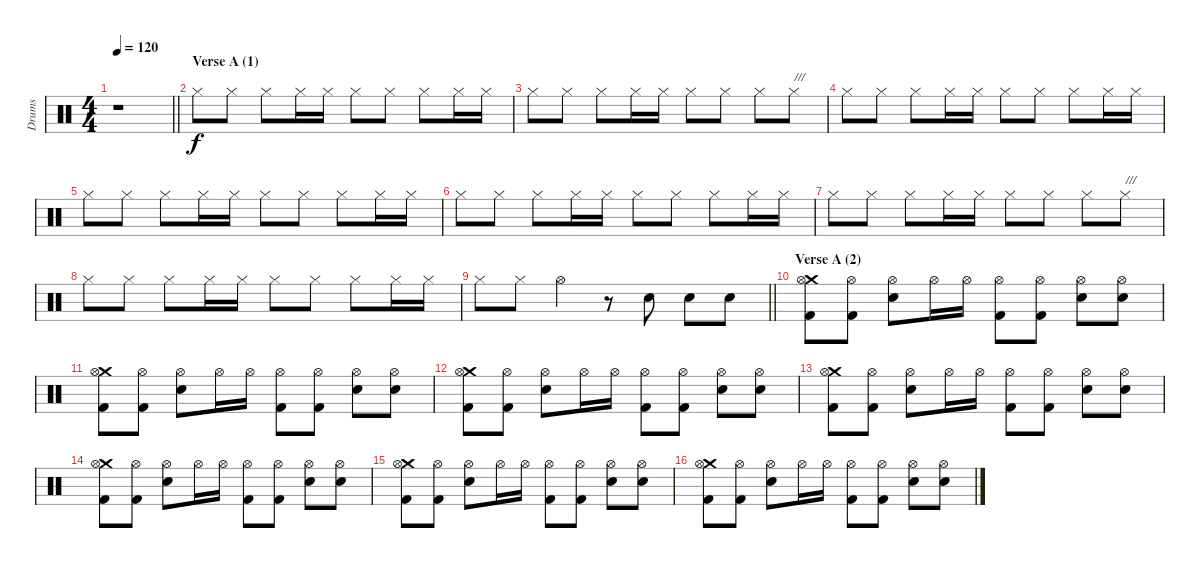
\track ("Drums" "Drums") {instrument percussion}
\staff {score}
\articulation defaults
\ts (4 4)
\tempo 120
\clef neutral
\barLineRight lightlight
\ks c
r.1{dy f} |
\section ("" "Verse A (1)")
"Hi-Hat (closed)".8 "Hi-Hat (closed)".8 "Hi-Hat (closed)".8 "Hi-Hat (closed)".16 "Hi-Hat (closed)".16 "Hi-Hat (closed)".8 "Hi-Hat (closed)".8 "Hi-Hat (closed)".8 "Hi-Hat (closed)".16 "Hi-Hat (closed)".16 |
"Hi-Hat (closed)".8 "Hi-Hat (closed)".8 "Hi-Hat (closed)".8 "Hi-Hat (closed)".16 "Hi-Hat (closed)".16 "Hi-Hat (closed)".8 "Hi-Hat (closed)".8 "Hi-Hat (closed)".8 "Hi-Hat (closed)".8{txt "///"} |
"Hi-Hat (closed)".8 "Hi-Hat (closed)".8 "Hi-Hat (closed)".8 "Hi-Hat (closed)".16 "Hi-Hat (closed)".16 "Hi-Hat (closed)".8 "Hi-Hat (closed)".8 "Hi-Hat (closed)".8 "Hi-Hat (closed)".16 "Hi-Hat (closed)".16 |
"Hi-Hat (closed)".8 "Hi-Hat (closed)".8 "Hi-Hat (closed)".8 "Hi-Hat (closed)".16 "Hi-Hat (closed)".16 "Hi-Hat (closed)".8 "Hi-Hat (closed)".8 "Hi-Hat (closed)".8 "Hi-Hat (closed)".16 "Hi-Hat (closed)".16 |
"Hi-Hat (closed)".8 "Hi-Hat (closed)".8 "Hi-Hat (closed)".8 "Hi-Hat (closed)".16 "Hi-Hat (closed)".16 "Hi-Hat (closed)".8 "Hi-Hat (closed)".8 "Hi-Hat (closed)".8 "Hi-Hat (closed)".16 "Hi-Hat (closed)".16 |
"Hi-Hat (closed)".8 "Hi-Hat (closed)".8 "Hi-Hat (closed)".8 "Hi-Hat (closed)".16 "Hi-Hat (closed)".16 "Hi-Hat (closed)".8 "Hi-Hat (closed)".8 "Hi-Hat (closed)".8 "Hi-Hat (closed)".8{txt "///"} |
"Hi-Hat (closed)".8 "Hi-Hat (closed)".8 "Hi-Hat (closed)".8 "Hi-Hat (closed)".16 "Hi-Hat (closed)".16 "Hi-Hat (closed)".8 "Hi-Hat (closed)".8 "Hi-Hat (closed)".8 "Hi-Hat (closed)".16 "Hi-Hat (closed)".16 |
\barLineRight lightlight "Hi-Hat (closed)".8 "Hi-Hat (closed)".8 "Hi-Hat (open)".4
r.8 "Electric Snare (hit)".8 "Electric Snare (hit)".8 "Electric Snare (hit)".8 |
\section ("" "Verse A (2)")
("Crash medium (hit)" "Hi-Hat (open)" "Kick (hit) 2").8 ("Hi-Hat (open)" "Kick (hit) 2").8 ("Hi-Hat (open)" "Electric Snare (hit)").8 "Hi-Hat (open)".16 "Hi-Hat (open)".16 ("Hi-Hat (open)" "Kick (hit) 2").8 ("Hi-Hat (open)" "Kick (hit) 2").8 ("Hi-Hat (open)" "Electric Snare (hit)").8 ("Hi-Hat (open)" "Electric Snare (hit)").8 |
("Crash medium (hit)" "Hi-Hat (open)" "Kick (hit) 2").8 ("Hi-Hat (open)" "Kick (hit) 2").8 ("Hi-Hat (open)" "Electric Snare (hit)").8 "Hi-Hat (open)".16 "Hi-Hat (open)".16 ("Hi-Hat (open)" "Kick (hit) 2").8 ("Hi-Hat (open)" "Kick (hit) 2").8 ("Hi-Hat (open)" "Electric Snare (hit)").8 ("Hi-Hat (open)" "Electric Snare (hit)").8 |
("Crash medium (hit)" "Hi-Hat (open)" "Kick (hit) 2").8 ("Hi-Hat (open)" "Kick (hit) 2").8 ("Hi-Hat (open)" "Electric Snare (hit)").8 "Hi-Hat (open)".16 "Hi-Hat (open)".16 ("Hi-Hat (open)" "Kick (hit) 2").8 ("Hi-Hat (open)" "Kick (hit) 2").8 ("Hi-Hat (open)" "Electric Snare (hit)").8 ("Hi-Hat (open)" "Electric Snare (hit)").8 |
("Crash medium (hit)" "Hi-Hat (open)" "Kick (hit) 2").8 ("Hi-Hat (open)" "Kick (hit) 2").8 ("Hi-Hat (open)" "Electric Snare (hit)").8 "Hi-Hat (open)".16 "Hi-Hat (open)".16 ("Hi-Hat (open)" "Kick (hit) 2").8 ("Hi-Hat (open)" "Kick (hit) 2").8 ("Hi-Hat (open)" "Electric Snare (hit)").8 ("Hi-Hat (open)" "Electric Snare (hit)").8 |
("Crash medium (hit)" "Hi-Hat (open)" "Kick (hit) 2").8 ("Hi-Hat (open)" "Kick (hit) 2").8 ("Hi-Hat (open)" "Electric Snare (hit)").8 "Hi-Hat (open)".16 "Hi-Hat (open)".16 ("Hi-Hat (open)" "Kick (hit) 2").8 ("Hi-Hat (open)" "Kick (hit) 2").8 ("Hi-Hat (open)" "Electric Snare (hit)").8 ("Hi-Hat (open)" "Electric Snare (hit)").8 |
("Crash medium (hit)" "Hi-Hat (open)" "Kick (hit) 2").8 ("Hi-Hat (open)" "Kick (hit) 2").8 ("Hi-Hat (open)" "Electric Snare (hit)").8 "Hi-Hat (open)".16 "Hi-Hat (open)".16 ("Hi-Hat (open)" "Kick (hit) 2").8 ("Hi-Hat (open)" "Kick (hit) 2").8 ("Hi-Hat (open)" "Electric Snare (hit)").8 ("Hi-Hat (open)" "Electric Snare (hit)").8 |
("Crash medium (hit)" "Hi-Hat (open)" "Kick (hit) 2").8 ("Hi-Hat (open)" "Kick (hit) 2").8 ("Hi-Hat (open)" "Electric Snare (hit)").8 "Hi-Hat (open)".16 "Hi-Hat (open)".16 ("Hi-Hat (open)" "Kick (hit) 2").8 ("Hi-Hat (open)" "Kick (hit) 2").8 ("Hi-Hat (open)" "Electric Snare (hit)").8 ("Hi-Hat (open)" "Electric Snare (hit)").8
